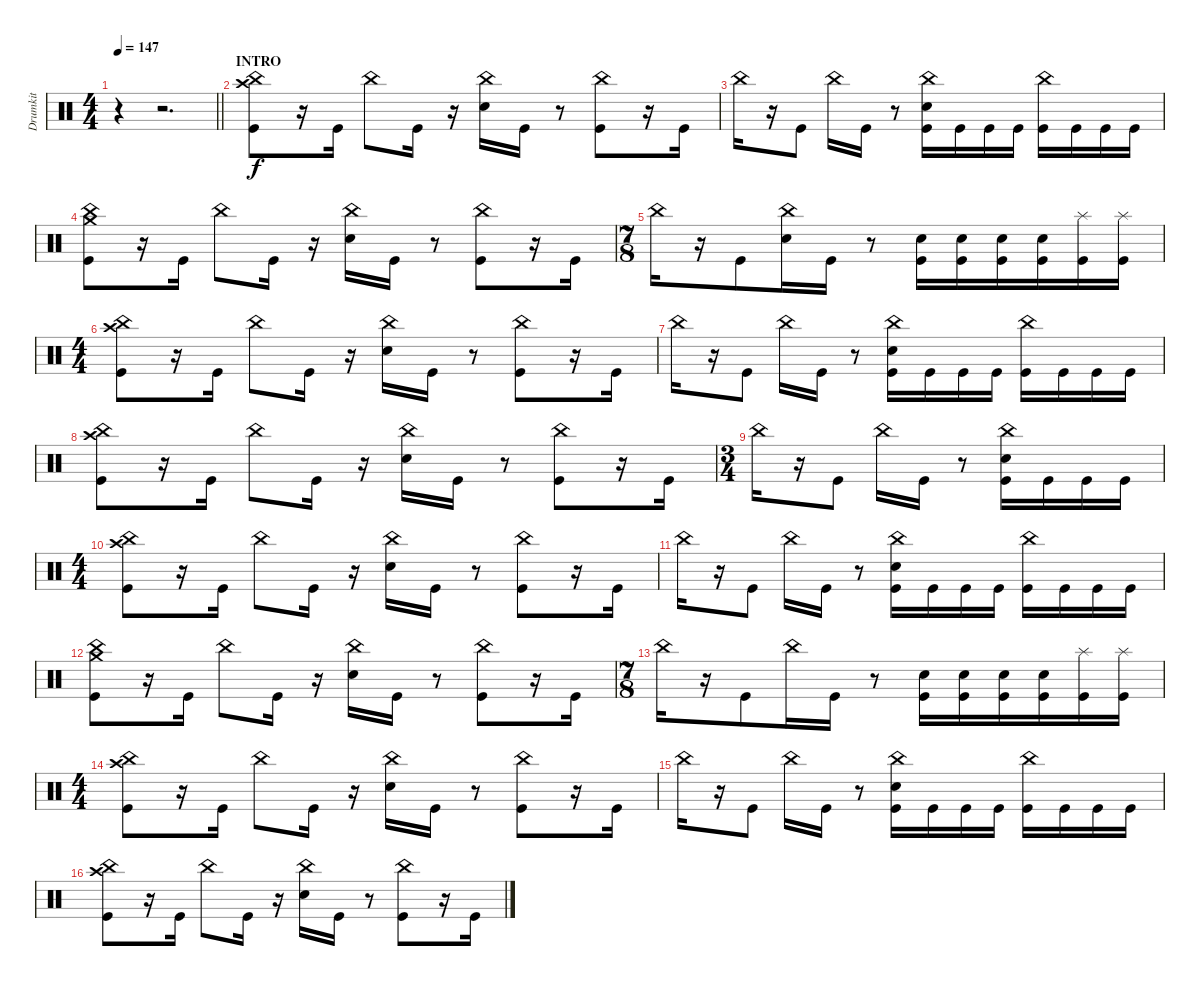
\track ("Drumkit" "Drumkit") {instrument percussion}
\staff {score}
\articulation defaults
\ts (4 4)
\tempo 147
\clef neutral
\barLineRight lightlight
\ks c
r.4{dy f} r.2{d} |
\section ("" "INTRO")
("Crash high (hit)" "China (hit)" "Kick (hit)").8 r.16 "Kick (hit)".16 "China (hit)".8 "Kick (hit)".16 r.16 ("China (hit)" "Snare (hit) 2").16 "Kick (hit)".16 r.8 ("China (hit)" "Kick (hit)").8 r.16 "Kick (hit)".16 |
"China (hit)".16 r.16 "Kick (hit)".8 "China (hit)".16 "Kick (hit)".16 r.8 ("China (hit)" "Snare (hit) 2" "Kick (hit)").16 "Kick (hit)".16 "Kick (hit)".16 "Kick (hit)".16 ("China (hit)" "Kick (hit)").16 "Kick (hit)".16 "Kick (hit)".16 "Kick (hit)".16 |
("Crash medium (hit)" "China (hit)" "Kick (hit)").8 r.16 "Kick (hit)".16 "China (hit)".8 "Kick (hit)".16 r.16 ("China (hit)" "Snare (hit) 2").16 "Kick (hit)".16 r.8 ("China (hit)" "Kick (hit)").8 r.16 "Kick (hit)".16 |
\ts (7 8)
"China (hit)".16 r.16 "Kick (hit)".8 ("China (hit)" "Snare (hit) 2").16 "Kick (hit)".16 r.8 ("Snare (hit) 2" "Kick (hit)").16 ("Snare (hit) 2" "Kick (hit)").16 ("Snare (hit) 2" "Kick (hit)").16 ("Snare (hit) 2" "Kick (hit)").16 ("Splash (hit)" "Kick (hit)").16 ("Splash (hit)" "Kick (hit)").16 |
\ts (4 4)
("Crash high (hit)" "China (hit)" "Kick (hit)").8 r.16 "Kick (hit)".16 "China (hit)".8 "Kick (hit)".16 r.16 ("China (hit)" "Snare (hit) 2").16 "Kick (hit)".16 r.8 ("China (hit)" "Kick (hit)").8 r.16 "Kick (hit)".16 |
"China (hit)".16 r.16 "Kick (hit)".8 "China (hit)".16 "Kick (hit)".16 r.8 ("China (hit)" "Snare (hit) 2" "Kick (hit)").16 "Kick (hit)".16 "Kick (hit)".16 "Kick (hit)".16 ("China (hit)" "Kick (hit)").16 "Kick (hit)".16 "Kick (hit)".16 "Kick (hit)".16 |
("Crash high (hit)" "China (hit)" "Kick (hit)").8 r.16 "Kick (hit)".16 "China (hit)".8 "Kick (hit)".16 r.16 ("China (hit)" "Snare (hit) 2").16 "Kick (hit)".16 r.8 ("China (hit)" "Kick (hit)").8 r.16 "Kick (hit)".16 |
\ts (3 4)
"China (hit)".16 r.16 "Kick (hit)".8 "China (hit)".16 "Kick (hit)".16 r.8 ("China (hit)" "Snare (hit) 2" "Kick (hit)").16 "Kick (hit)".16 "Kick (hit)".16 "Kick (hit)".16 |
\ts (4 4)
("Crash high (hit)" "China (hit)" "Kick (hit)").8 r.16 "Kick (hit)".16 "China (hit)".8 "Kick (hit)".16 r.16 ("China (hit)" "Snare (hit) 2").16 "Kick (hit)".16 r.8 ("China (hit)" "Kick (hit)").8 r.16 "Kick (hit)".16 |
"China (hit)".16 r.16 "Kick (hit)".8 "China (hit)".16 "Kick (hit)".16 r.8 ("China (hit)" "Snare (hit) 2" "Kick (hit)").16 "Kick (hit)".16 "Kick (hit)".16 "Kick (hit)".16 ("China (hit)" "Kick (hit)").16 "Kick (hit)".16 "Kick (hit)".16 "Kick (hit)".16 |
("Crash medium (hit)" "China (hit)" "Kick (hit)").8 r.16 "Kick (hit)".16 "China (hit)".8 "Kick (hit)".16 r.16 ("China (hit)" "Snare (hit) 2").16 "Kick (hit)".16 r.8 ("China (hit)" "Kick (hit)").8 r.16 "Kick (hit)".16 |
\ts (7 8)
"China (hit)".16 r.16 "Kick (hit)".8 "China (hit)".16 "Kick (hit)".16 r.8 ("Snare (hit) 2" "Kick (hit)").16 ("Snare (hit) 2" "Kick (hit)").16 ("Snare (hit) 2" "Kick (hit)").16 ("Snare (hit) 2" "Kick (hit)").16 ("Splash (hit)" "Kick (hit)").16 ("Splash (hit)" "Kick (hit)").16 |
\ts (4 4)
("Crash high (hit)" "China (hit)" "Kick (hit)").8 r.16 "Kick (hit)".16 "China (hit)".8 "Kick (hit)".16 r.16 ("China (hit)" "Snare (hit) 2").16 "Kick (hit)".16 r.8 ("China (hit)" "Kick (hit)").8 r.16 "Kick (hit)".16 |
"China (hit)".16 r.16 "Kick (hit)".8 "China (hit)".16 "Kick (hit)".16 r.8 ("China (hit)" "Snare (hit) 2" "Kick (hit)").16 "Kick (hit)".16 "Kick (hit)".16 "Kick (hit)".16 ("China (hit)" "Kick (hit)").16 "Kick (hit)".16 "Kick (hit)".16 "Kick (hit)".16 |
("Crash high (hit)" "China (hit)" "Kick (hit)").8 r.16 "Kick (hit)".16 "China (hit)".8 "Kick (hit)".16 r.16 ("China (hit)" "Snare (hit) 2").16 "Kick (hit)".16 r.8 ("China (hit)" "Kick (hit)").8 r.16 "Kick (hit)".16
